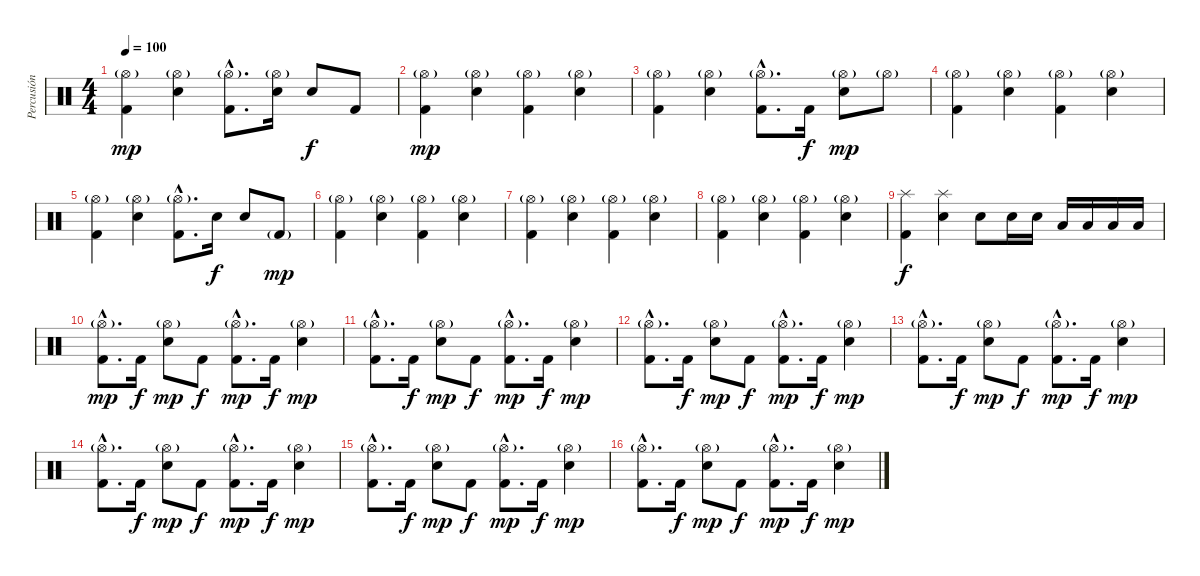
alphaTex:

\track ("Percusión" "Percusión") {instrument percussion}
\staff {score}
\articulation defaults
\ts (4 4)
\tempo 100
\clef neutral
\ks c
("Kick (hit) 2" "Hi-Hat (open)"{g}).4{dy mp} ("Electric Snare (hit)" "Hi-Hat (open)"{g}).4 ("Kick (hit) 2"{hac} "Hi-Hat (open)"{g hac}).8{d} ("Electric Snare (hit)" "Hi-Hat (open)"{g}).16 "Electric Snare (hit)".8{dy f} "Kick (hit) 2".8 |
("Kick (hit) 2" "Hi-Hat (open)"{g}).4{dy mp} ("Electric Snare (hit)" "Hi-Hat (open)"{g}).4 ("Kick (hit) 2" "Hi-Hat (open)"{g}).4 ("Electric Snare (hit)" "Hi-Hat (open)"{g}).4 |
("Kick (hit) 2" "Hi-Hat (open)"{g}).4 ("Electric Snare (hit)" "Hi-Hat (open)"{g}).4 ("Kick (hit) 2"{hac} "Hi-Hat (open)"{g hac}).8{d} "Kick (hit) 2".16{dy f} ("Electric Snare (hit)" "Hi-Hat (open)"{g}).8{dy mp} "Hi-Hat (open)"{g}.8 |
("Kick (hit) 2" "Hi-Hat (open)"{g}).4 ("Electric Snare (hit)" "Hi-Hat (open)"{g}).4 ("Kick (hit) 2" "Hi-Hat (open)"{g}).4 ("Electric Snare (hit)" "Hi-Hat (open)"{g}).4 |
("Kick (hit) 2" "Hi-Hat (open)"{g}).4 ("Electric Snare (hit)" "Hi-Hat (open)"{g}).4 ("Kick (hit) 2"{hac} "Hi-Hat (open)"{g hac}).8{d} "Electric Snare (hit)".16{dy f} "Electric Snare (hit)".8 "Kick (hit) 2"{g}.8{dy mp} |
("Kick (hit) 2" "Hi-Hat (open)"{g}).4 ("Electric Snare (hit)" "Hi-Hat (open)"{g}).4 ("Kick (hit) 2" "Hi-Hat (open)"{g}).4 ("Electric Snare (hit)" "Hi-Hat (open)"{g}).4 |
("Kick (hit) 2" "Hi-Hat (open)"{g}).4 ("Electric Snare (hit)" "Hi-Hat (open)"{g}).4 ("Kick (hit) 2" "Hi-Hat (open)"{g}).4 ("Electric Snare (hit)" "Hi-Hat (open)"{g}).4 |
("Kick (hit) 2" "Hi-Hat (open)"{g}).4 ("Electric Snare (hit)" "Hi-Hat (open)"{g}).4 ("Kick (hit) 2" "Hi-Hat (open)"{g}).4 ("Electric Snare (hit)" "Hi-Hat (open)"{g}).4 |
("Kick (hit) 2" "Splash (hit)").4{dy f} ("Electric Snare (hit)" "Splash (hit)").4 "Electric Snare (hit)".8 "Electric Snare (hit)".16 "Electric Snare (hit)".16 "Low Tom (hit)".16 "Low Tom (hit)".16 "Low Floor Tom (hit)".16 "Low Floor Tom (hit)".16 |
("Kick (hit) 2"{hac} "Hi-Hat (open)"{g hac}).8{d dy mp} "Kick (hit) 2".16{dy f} ("Electric Snare (hit)" "Hi-Hat (open)"{g}).8{dy mp} "Kick (hit) 2".8{dy f} ("Kick (hit) 2"{hac} "Hi-Hat (open)"{g hac}).8{d dy mp} "Kick (hit) 2".16{dy f} ("Electric Snare (hit)" "Hi-Hat (open)"{g}).4{dy mp} |
("Kick (hit) 2"{hac} "Hi-Hat (open)"{g hac}).8{d} "Kick (hit) 2".16{dy f} ("Electric Snare (hit)" "Hi-Hat (open)"{g}).8{dy mp} "Kick (hit) 2".8{dy f} ("Kick (hit) 2"{hac} "Hi-Hat (open)"{g hac}).8{d dy mp} "Kick (hit) 2".16{dy f} ("Electric Snare (hit)" "Hi-Hat (open)"{g}).4{dy mp} |
("Kick (hit) 2"{hac} "Hi-Hat (open)"{g hac}).8{d} "Kick (hit) 2".16{dy f} ("Electric Snare (hit)" "Hi-Hat (open)"{g}).8{dy mp} "Kick (hit) 2".8{dy f} ("Kick (hit) 2"{hac} "Hi-Hat (open)"{g hac}).8{d dy mp} "Kick (hit) 2".16{dy f} ("Electric Snare (hit)" "Hi-Hat (open)"{g}).4{dy mp} |
("Kick (hit) 2"{hac} "Hi-Hat (open)"{g hac}).8{d} "Kick (hit) 2".16{dy f} ("Electric Snare (hit)" "Hi-Hat (open)"{g}).8{dy mp} "Kick (hit) 2".8{dy f} ("Kick (hit) 2"{hac} "Hi-Hat (open)"{g hac}).8{d dy mp} "Kick (hit) 2".16{dy f} ("Electric Snare (hit)" "Hi-Hat (open)"{g}).4{dy mp} |
("Kick (hit) 2"{hac} "Hi-Hat (open)"{g hac}).8{d} "Kick (hit) 2".16{dy f} ("Electric Snare (hit)" "Hi-Hat (open)"{g}).8{dy mp} "Kick (hit) 2".8{dy f} ("Kick (hit) 2"{hac} "Hi-Hat (open)"{g hac}).8{d dy mp} "Kick (hit) 2".16{dy f} ("Electric Snare (hit)" "Hi-Hat (open)"{g}).4{dy mp} |
("Kick (hit) 2"{hac} "Hi-Hat (open)"{g hac}).8{d} "Kick (hit) 2".16{dy f} ("Electric Snare (hit)" "Hi-Hat (open)"{g}).8{dy mp} "Kick (hit) 2".8{dy f} ("Kick (hit) 2"{hac} "Hi-Hat (open)"{g hac}).8{d dy mp} "Kick (hit) 2".16{dy f} ("Electric Snare (hit)" "Hi-Hat (open)"{g}).4{dy mp} |
("Kick (hit) 2"{hac} "Hi-Hat (open)"{g hac}).8{d} "Kick (hit) 2".16{dy f} ("Electric Snare (hit)" "Hi-Hat (open)"{g}).8{dy mp} "Kick (hit) 2".8{dy f} ("Kick (hit) 2"{hac} "Hi-Hat (open)"{g hac}).8{d dy mp} "Kick (hit) 2".16{dy f} ("Electric Snare (hit)" "Hi-Hat (open)"{g}).4{dy mp}
